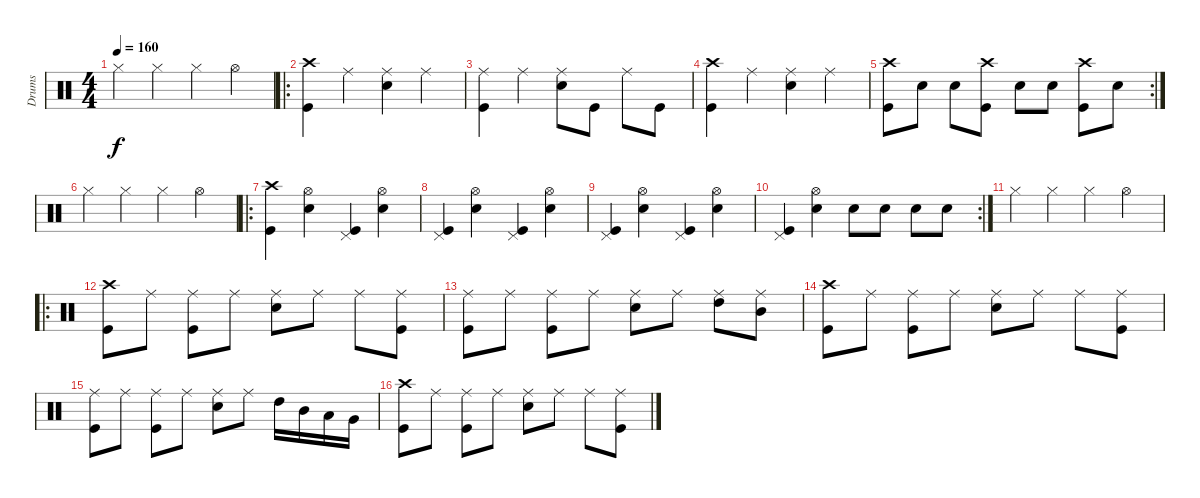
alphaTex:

\track ("Drums" "Drums") {instrument percussion}
\staff {score}
\articulation defaults
\ts (4 4)
\tempo 160
\clef neutral
\ks c "Hi-Hat (closed)".4{dy f} "Hi-Hat (closed)".4 "Hi-Hat (closed)".4 "Hi-Hat (open)".4
|
\ro
("Crash high (hit)" "Kick (hit)").4 "Ride (middle)".4 ("Ride (middle)" "Snare (hit) 2").4 "Ride (middle)".4 |
("Ride (middle)" "Kick (hit)").4 "Ride (middle)".4 ("Ride (middle)" "Snare (hit) 2").8 "Kick (hit)".8 "Ride (middle)".8 "Kick (hit)".8 |
("Crash high (hit)" "Kick (hit)").4 "Ride (middle)".4 ("Ride (middle)" "Snare (hit) 2").4 "Ride (middle)".4 |
\rc 2
("Crash high (hit)" "Kick (hit)").8 "Snare (hit) 2".8 "Snare (hit) 2".8 ("Crash high (hit)" "Kick (hit)").8 "Snare (hit) 2".8 "Snare (hit) 2".8 ("Crash high (hit)" "Kick (hit)").8 "Snare (hit) 2".8 |
"Hi-Hat (closed)".4 "Hi-Hat (closed)".4 "Hi-Hat (closed)".4 "Hi-Hat (open)".4 |
\ro
("Crash high (hit)" "Kick (hit)").4 ("Hi-Hat (open)" "Snare (hit) 2").4 ("Pedal Hi-Hat (hit)" "Kick (hit)").4 ("Hi-Hat (open)" "Snare (hit) 2").4 |
("Pedal Hi-Hat (hit)" "Kick (hit)").4 ("Hi-Hat (open)" "Snare (hit) 2").4 ("Pedal Hi-Hat (hit)" "Kick (hit)").4 ("Hi-Hat (open)" "Snare (hit) 2").4 |
("Pedal Hi-Hat (hit)" "Kick (hit)").4 ("Hi-Hat (open)" "Snare (hit) 2").4 ("Pedal Hi-Hat (hit)" "Kick (hit)").4 ("Hi-Hat (open)" "Snare (hit) 2").4 |
\rc 2
("Pedal Hi-Hat (hit)" "Kick (hit)").4 ("Hi-Hat (open)" "Snare (hit) 2").4 "Snare (hit) 2".8 "Snare (hit) 2".8 "Snare (hit) 2".8 "Snare (hit) 2".8 |
"Hi-Hat (closed)".4 "Hi-Hat (closed)".4 "Hi-Hat (closed)".4 "Hi-Hat (open)".4 |
\ro
("Crash high (hit)" "Kick (hit)").8 "Ride (middle)".8 ("Ride (middle)" "Kick (hit)").8 "Ride (middle)".8 ("Ride (middle)" "Snare (hit) 2").8 "Ride (middle)".8 "Ride (middle)".8 ("Ride (middle)" "Kick (hit)").8 |
("Ride (middle)" "Kick (hit)").8 "Ride (middle)".8 ("Ride (middle)" "Kick (hit)").8 "Ride (middle)".8 ("Ride (middle)" "Snare (hit) 2").8 "Ride (middle)".8 ("Ride (middle)" "High Tom (hit)").8 ("Ride (middle)" "Mid Tom (hit)").8 |
("Crash high (hit)" "Kick (hit)").8 "Ride (middle)".8 ("Ride (middle)" "Kick (hit)").8 "Ride (middle)".8 ("Ride (middle)" "Snare (hit) 2").8 "Ride (middle)".8 "Ride (middle)".8 ("Ride (middle)" "Kick (hit)").8 |
("Ride (middle)" "Kick (hit)").8 "Ride (middle)".8 ("Ride (middle)" "Kick (hit)").8 "Ride (middle)".8 ("Ride (middle)" "Snare (hit) 2").8 "Ride (middle)".8 "High Tom (hit)".16 "Mid Tom (hit)".16 "Low Tom (hit)".16 "Very Low Tom (hit)".16 |
("Crash high (hit)" "Kick (hit)").8 "Ride (middle)".8 ("Ride (middle)" "Kick (hit)").8 "Ride (middle)".8 ("Ride (middle)" "Snare (hit) 2").8 "Ride (middle)".8 "Ride (middle)".8 ("Ride (middle)" "Kick (hit)").8
